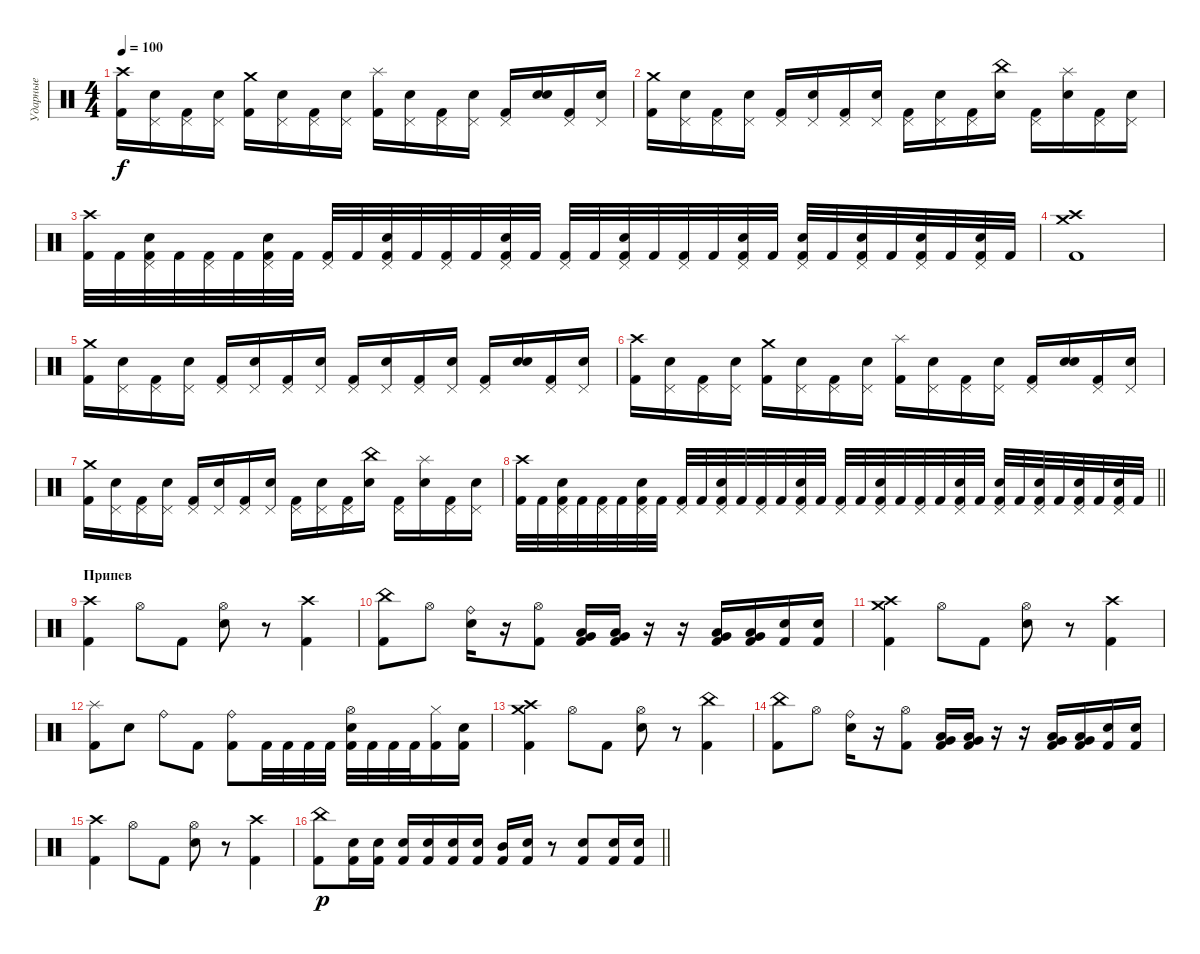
\track ("Ударные" "Ударные") {instrument percussion}
\staff {score}
\articulation defaults
\ts (4 4)
\tempo 100
\clef neutral
\ks c
("Crash high (hit)" "Kick (hit) 2").16{dy f} ("Pedal Hi-Hat (hit)" "Snare (hit) 2").16 ("Pedal Hi-Hat (hit)" "Kick (hit) 2").16 ("Pedal Hi-Hat (hit)" "Snare (hit) 2").16 ("Crash medium (hit)" "Kick (hit) 2").16 ("Pedal Hi-Hat (hit)" "Snare (hit) 2").16 ("Pedal Hi-Hat (hit)" "Kick (hit) 2").16 ("Pedal Hi-Hat (hit)" "Snare (hit) 2").16 ("Splash (hit)" "Kick (hit) 2").16 ("Pedal Hi-Hat (hit)" "Snare (hit) 2").16 ("Pedal Hi-Hat (hit)" "Kick (hit) 2").16 ("Pedal Hi-Hat (hit)" "Snare (hit) 2").16 ("Pedal Hi-Hat (hit)" "Kick (hit) 2").16 ("Snare (hit)" "Snare (hit) 2").16 ("Pedal Hi-Hat (hit)" "Kick (hit) 2").16 ("Pedal Hi-Hat (hit)" "Snare (hit) 2").16 |
("Crash medium (hit)" "Kick (hit) 2").16 ("Pedal Hi-Hat (hit)" "Snare (hit) 2").16 ("Pedal Hi-Hat (hit)" "Kick (hit) 2").16 ("Pedal Hi-Hat (hit)" "Snare (hit) 2").16 ("Pedal Hi-Hat (hit)" "Kick (hit) 2").16 ("Pedal Hi-Hat (hit)" "Snare (hit) 2").16 ("Pedal Hi-Hat (hit)" "Kick (hit) 2").16 ("Pedal Hi-Hat (hit)" "Snare (hit) 2").16 ("Pedal Hi-Hat (hit)" "Kick (hit) 2").16 ("Pedal Hi-Hat (hit)" "Snare (hit) 2").16 ("Pedal Hi-Hat (hit)" "Kick (hit) 2").16 ("China (hit)" "Snare (hit) 2").16 ("Pedal Hi-Hat (hit)" "Kick (hit) 2").16 ("Splash (hit)" "Snare (hit) 2").16 ("Pedal Hi-Hat (hit)" "Kick (hit) 2").16 ("Pedal Hi-Hat (hit)" "Snare (hit) 2").16 |
("Crash high (hit)" "Kick (hit) 2").32 "Kick (hit) 2".32 ("Pedal Hi-Hat (hit)" "Snare (hit) 2" "Kick (hit) 2").32 "Kick (hit) 2".32 ("Pedal Hi-Hat (hit)" "Kick (hit) 2").32 "Kick (hit) 2".32 ("Pedal Hi-Hat (hit)" "Snare (hit) 2" "Kick (hit) 2").32 "Kick (hit) 2".32 ("Pedal Hi-Hat (hit)" "Kick (hit) 2").32 "Kick (hit) 2".32 ("Pedal Hi-Hat (hit)" "Snare (hit) 2" "Kick (hit) 2").32 "Kick (hit) 2".32 ("Pedal Hi-Hat (hit)" "Kick (hit) 2").32 "Kick (hit) 2".32 ("Pedal Hi-Hat (hit)" "Snare (hit) 2" "Kick (hit) 2").32 "Kick (hit) 2".32 ("Pedal Hi-Hat (hit)" "Kick (hit) 2").32 "Kick (hit) 2".32 ("Pedal Hi-Hat (hit)" "Snare (hit) 2" "Kick (hit) 2").32 "Kick (hit) 2".32 ("Pedal Hi-Hat (hit)" "Kick (hit) 2").32 "Kick (hit) 2".32 ("Pedal Hi-Hat (hit)" "Snare (hit) 2" "Kick (hit) 2").32 "Kick (hit) 2".32 ("Pedal Hi-Hat (hit)" "Snare (hit) 2" "Kick (hit) 2").32 "Kick (hit) 2".32 ("Pedal Hi-Hat (hit)" "Snare (hit) 2" "Kick (hit) 2").32 "Kick (hit) 2".32 ("Pedal Hi-Hat (hit)" "Snare (hit) 2" "Kick (hit) 2").32 "Kick (hit) 2".32 ("Pedal Hi-Hat (hit)" "Snare (hit) 2" "Kick (hit) 2").32 "Kick (hit) 2".32 |
("Crash medium (hit)" "Crash high (hit)" "Kick (hit) 2").1 |
("Crash medium (hit)" "Kick (hit) 2").16 ("Pedal Hi-Hat (hit)" "Snare (hit) 2").16 ("Pedal Hi-Hat (hit)" "Kick (hit) 2").16 ("Pedal Hi-Hat (hit)" "Snare (hit) 2").16 ("Pedal Hi-Hat (hit)" "Kick (hit) 2").16 ("Pedal Hi-Hat (hit)" "Snare (hit) 2").16 ("Pedal Hi-Hat (hit)" "Kick (hit) 2").16 ("Pedal Hi-Hat (hit)" "Snare (hit) 2").16 ("Pedal Hi-Hat (hit)" "Kick (hit) 2").16 ("Pedal Hi-Hat (hit)" "Snare (hit) 2").16 ("Pedal Hi-Hat (hit)" "Kick (hit) 2").16 ("Pedal Hi-Hat (hit)" "Snare (hit) 2").16 ("Pedal Hi-Hat (hit)" "Kick (hit) 2").16 ("Snare (hit)" "Snare (hit) 2").16 ("Pedal Hi-Hat (hit)" "Kick (hit) 2").16 ("Pedal Hi-Hat (hit)" "Snare (hit) 2").16 |
("Crash high (hit)" "Kick (hit) 2").16 ("Pedal Hi-Hat (hit)" "Snare (hit) 2").16 ("Pedal Hi-Hat (hit)" "Kick (hit) 2").16 ("Pedal Hi-Hat (hit)" "Snare (hit) 2").16 ("Crash medium (hit)" "Kick (hit) 2").16 ("Pedal Hi-Hat (hit)" "Snare (hit) 2").16 ("Pedal Hi-Hat (hit)" "Kick (hit) 2").16 ("Pedal Hi-Hat (hit)" "Snare (hit) 2").16 ("Splash (hit)" "Kick (hit) 2").16 ("Pedal Hi-Hat (hit)" "Snare (hit) 2").16 ("Pedal Hi-Hat (hit)" "Kick (hit) 2").16 ("Pedal Hi-Hat (hit)" "Snare (hit) 2").16 ("Pedal Hi-Hat (hit)" "Kick (hit) 2").16 ("Snare (hit)" "Snare (hit) 2").16 ("Pedal Hi-Hat (hit)" "Kick (hit) 2").16 ("Pedal Hi-Hat (hit)" "Snare (hit) 2").16 |
("Crash medium (hit)" "Kick (hit) 2").16 ("Pedal Hi-Hat (hit)" "Snare (hit) 2").16 ("Pedal Hi-Hat (hit)" "Kick (hit) 2").16 ("Pedal Hi-Hat (hit)" "Snare (hit) 2").16 ("Pedal Hi-Hat (hit)" "Kick (hit) 2").16 ("Pedal Hi-Hat (hit)" "Snare (hit) 2").16 ("Pedal Hi-Hat (hit)" "Kick (hit) 2").16 ("Pedal Hi-Hat (hit)" "Snare (hit) 2").16 ("Pedal Hi-Hat (hit)" "Kick (hit) 2").16 ("Pedal Hi-Hat (hit)" "Snare (hit) 2").16 ("Pedal Hi-Hat (hit)" "Kick (hit) 2").16 ("China (hit)" "Snare (hit) 2").16 ("Pedal Hi-Hat (hit)" "Kick (hit) 2").16 ("Splash (hit)" "Snare (hit) 2").16 ("Pedal Hi-Hat (hit)" "Kick (hit) 2").16 ("Pedal Hi-Hat (hit)" "Snare (hit) 2").16 |
\barLineRight lightlight
("Crash high (hit)" "Kick (hit) 2").32 "Kick (hit) 2".32 ("Pedal Hi-Hat (hit)" "Snare (hit) 2" "Kick (hit) 2").32 "Kick (hit) 2".32 ("Pedal Hi-Hat (hit)" "Kick (hit) 2").32 "Kick (hit) 2".32 ("Pedal Hi-Hat (hit)" "Snare (hit) 2" "Kick (hit) 2").32 "Kick (hit) 2".32 ("Pedal Hi-Hat (hit)" "Kick (hit) 2").32 "Kick (hit) 2".32 ("Pedal Hi-Hat (hit)" "Snare (hit) 2" "Kick (hit) 2").32 "Kick (hit) 2".32 ("Pedal Hi-Hat (hit)" "Kick (hit) 2").32 "Kick (hit) 2".32 ("Pedal Hi-Hat (hit)" "Snare (hit) 2" "Kick (hit) 2").32 "Kick (hit) 2".32 ("Pedal Hi-Hat (hit)" "Kick (hit) 2").32 "Kick (hit) 2".32 ("Pedal Hi-Hat (hit)" "Snare (hit) 2" "Kick (hit) 2").32 "Kick (hit) 2".32 ("Pedal Hi-Hat (hit)" "Kick (hit) 2").32 "Kick (hit) 2".32 ("Pedal Hi-Hat (hit)" "Snare (hit) 2" "Kick (hit) 2").32 "Kick (hit) 2".32 ("Pedal Hi-Hat (hit)" "Snare (hit) 2" "Kick (hit) 2").32 "Kick (hit) 2".32 ("Pedal Hi-Hat (hit)" "Snare (hit) 2" "Kick (hit) 2").32 "Kick (hit) 2".32 ("Pedal Hi-Hat (hit)" "Snare (hit) 2" "Kick (hit) 2").32 "Kick (hit) 2".32 ("Pedal Hi-Hat (hit)" "Snare (hit) 2" "Kick (hit) 2").32 "Kick (hit) 2".32 |
\section ("" "Припев")
("Crash high (hit)" "Kick (hit) 2").4 "Hi-Hat (open)".8 "Kick (hit) 2".8 ("Hi-Hat (open)" "Snare (hit) 2").8 r.8 ("Crash high (hit)" "Kick (hit) 2").4 |
("China (hit)" "Kick (hit) 2").8 "Hi-Hat (open)".8 ("Ride (bell)" "Snare (hit) 2").16 r.16 ("Hi-Hat (open)" "Kick (hit) 2").8 ("Low Tom (hit)" "Very Low Tom (hit)" "Kick (hit) 2").16 ("Low Tom (hit)" "Very Low Tom (hit)" "Kick (hit) 2").16 r.16 r.16 ("Low Tom (hit)" "Very Low Tom (hit)" "Kick (hit) 2").16 ("Low Tom (hit)" "Very Low Tom (hit)" "Kick (hit) 2").16 ("Snare (hit) 2" "Kick (hit) 2").16 ("Snare (hit) 2" "Kick (hit) 2").16 |
("Crash medium (hit)" "Crash high (hit)" "Kick (hit) 2").4 "Hi-Hat (open)".8 "Kick (hit) 2".8 ("Hi-Hat (open)" "Snare (hit) 2").8 r.8 ("Crash high (hit)" "Kick (hit) 2").4 |
("Splash (hit)" "Kick (hit) 2").8 "Snare (hit) 2".8 "Ride (bell)".8 "Kick (hit) 2".8 ("Ride (bell)" "Kick (hit) 2").8 "Kick (hit) 2".32 "Kick (hit) 2".32 "Kick (hit) 2".32 "Kick (hit) 2".32 ("Hi-Hat (open)" "Snare (hit) 2" "Kick (hit) 2").32 "Kick (hit) 2".32 "Kick (hit) 2".32 "Kick (hit) 2".32 ("Hi-Hat (closed)" "Kick (hit) 2").16 ("Snare (hit) 2" "Kick (hit) 2").16 |
("Crash medium (hit)" "Crash high (hit)" "Kick (hit) 2").4 "Hi-Hat (open)".8 "Kick (hit) 2".8 ("Hi-Hat (open)" "Snare (hit) 2").8 r.8 ("China (hit)" "Kick (hit) 2").4 |
("China (hit)" "Kick (hit) 2").8 "Hi-Hat (open)".8 ("Ride (bell)" "Snare (hit) 2").16 r.16 ("Hi-Hat (open)" "Kick (hit) 2").8 ("Low Tom (hit)" "Very Low Tom (hit)" "Kick (hit) 2").16 ("Low Tom (hit)" "Very Low Tom (hit)" "Kick (hit) 2").16 r.16 r.16 ("Low Tom (hit)" "Very Low Tom (hit)" "Kick (hit) 2").16 ("Low Tom (hit)" "Very Low Tom (hit)" "Kick (hit) 2").16 ("Snare (hit) 2" "Kick (hit) 2").16 ("Snare (hit) 2" "Kick (hit) 2").16 |
("Crash high (hit)" "Kick (hit) 2").4 "Hi-Hat (open)".8 "Kick (hit) 2".8 ("Hi-Hat (open)" "Snare (hit) 2").8 r.8 ("Crash high (hit)" "Kick (hit) 2").4 |
\barLineRight lightlight
("China (hit)" "Kick (hit) 2").8{dy p} ("Snare (hit) 2" "Kick (hit) 2").16 ("Snare (hit) 2" "Kick (hit) 2").16 ("Snare (hit) 2" "Kick (hit) 2").16 ("Snare (hit) 2" "Kick (hit) 2").16 ("Snare (hit) 2" "Kick (hit) 2").16 ("Snare (hit) 2" "Kick (hit) 2").16 ("Mid Tom (hit)" "Kick (hit) 2").16 ("Snare (hit) 2" "Kick (hit) 2").16 r.8 ("Snare (hit) 2" "Kick (hit) 2").8 ("Snare (hit) 2" "Kick (hit) 2").16 ("Snare (hit) 2" "Kick (hit) 2").16
